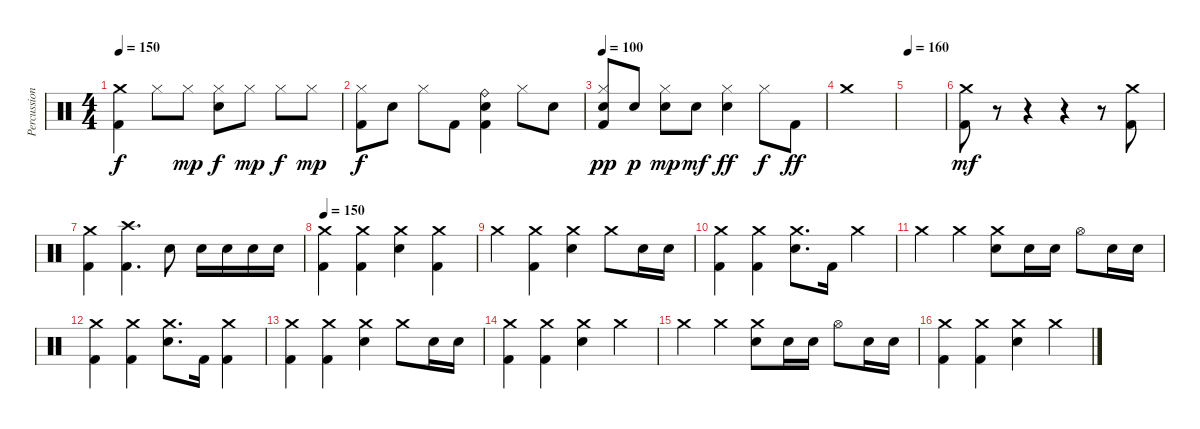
\track ("Percussion" "Percussion") {instrument percussion}
\staff {score}
\articulation defaults
\ts (4 4)
\tempo 150
\clef neutral
\ks c
("Crash medium (hit)" "Kick (hit) 2").4{dy f} "Hi-Hat (closed)".8 "Hi-Hat (closed)".8{dy mp} ("Hi-Hat (closed)" "Electric Snare (hit)").8{dy f} "Hi-Hat (closed)".8{dy mp} "Hi-Hat (closed)".8{dy f} "Hi-Hat (closed)".8{dy mp} |
("Hi-Hat (closed)" "Kick (hit) 2").8{dy f} "Electric Snare (hit)".8 "Hi-Hat (closed)".8 "Kick (hit) 2".8 ("Ride (bell)" "Electric Snare (hit)" "Kick (hit) 2").4 "Hi-Hat (closed)".8 "Electric Snare (hit)".8 |
\tempo 100
("Hi-Hat (closed)" "Snare (hit) 2" "Kick (hit) 2").8{dy pp} "Snare (hit) 2".8{dy p} ("Hi-Hat (closed)" "Snare (hit) 2").8{dy mp} "Snare (hit) 2".8{dy mf} ("Hi-Hat (closed)" "Electric Snare (hit)").4{dy ff} "Hi-Hat (closed)".8{dy f} "Kick (hit) 2".8{dy ff} |
"Crash medium (hit)".1 |
\tempo 160
|
("Crash medium (hit)" "Kick (hit) 2").8{dy mf} r.8{volume 0} r.4 r.4 r.8 ("Crash medium (hit)" "Kick (hit) 2").8{volume 13} |
("Crash medium (hit)" "Kick (hit) 2").4 ("Crash high (hit)" "Kick (hit) 2").4{d} "Electric Snare (hit)".8 "Electric Snare (hit)".16 "Electric Snare (hit)".16 "Electric Snare (hit)".16 "Electric Snare (hit)".16 |
\tempo 150
("Crash medium (hit)" "Kick (hit) 2").4{volume 13} ("Crash medium (hit)" "Kick (hit) 2").4 ("Crash medium (hit)" "Electric Snare (hit)").4 ("Crash medium (hit)" "Kick (hit) 2").4 |
"Crash medium (hit)".4 ("Crash medium (hit)" "Kick (hit) 2").4 ("Crash medium (hit)" "Electric Snare (hit)").4 "Crash medium (hit)".8 "Electric Snare (hit)".16 "Electric Snare (hit)".16 |
("Crash medium (hit)" "Kick (hit) 2").4 ("Crash medium (hit)" "Kick (hit) 2").4 ("Crash medium (hit)" "Electric Snare (hit)").8{d} "Kick (hit) 2".16 "Crash medium (hit)".4 |
"Crash medium (hit)".4 "Crash medium (hit)".4 ("Crash medium (hit)" "Electric Snare (hit)").8 "Electric Snare (hit)".16 "Electric Snare (hit)".16 "Hi-Hat (open)".8 "Electric Snare (hit)".16 "Electric Snare (hit)".16 |
("Crash medium (hit)" "Kick (hit) 2").4 ("Crash medium (hit)" "Kick (hit) 2").4 ("Crash medium (hit)" "Electric Snare (hit)").8{d} "Kick (hit) 2".16 ("Crash medium (hit)" "Kick (hit) 2").4 |
("Crash medium (hit)" "Kick (hit) 2").4 ("Crash medium (hit)" "Kick (hit) 2").4 ("Crash medium (hit)" "Electric Snare (hit)").4 "Crash medium (hit)".8 "Electric Snare (hit)".16 "Electric Snare (hit)".16 |
("Crash medium (hit)" "Kick (hit) 2").4 ("Crash medium (hit)" "Kick (hit) 2").4 ("Crash medium (hit)" "Electric Snare (hit)").4 "Crash medium (hit)".4 |
"Crash medium (hit)".4 "Crash medium (hit)".4 ("Crash medium (hit)" "Electric Snare (hit)").8 "Electric Snare (hit)".16 "Electric Snare (hit)".16 "Hi-Hat (open)".8 "Electric Snare (hit)".16 "Electric Snare (hit)".16 |
("Crash medium (hit)" "Kick (hit) 2").4 ("Crash medium (hit)" "Kick (hit) 2").4 ("Crash medium (hit)" "Electric Snare (hit)").4 "Crash medium (hit)".4
